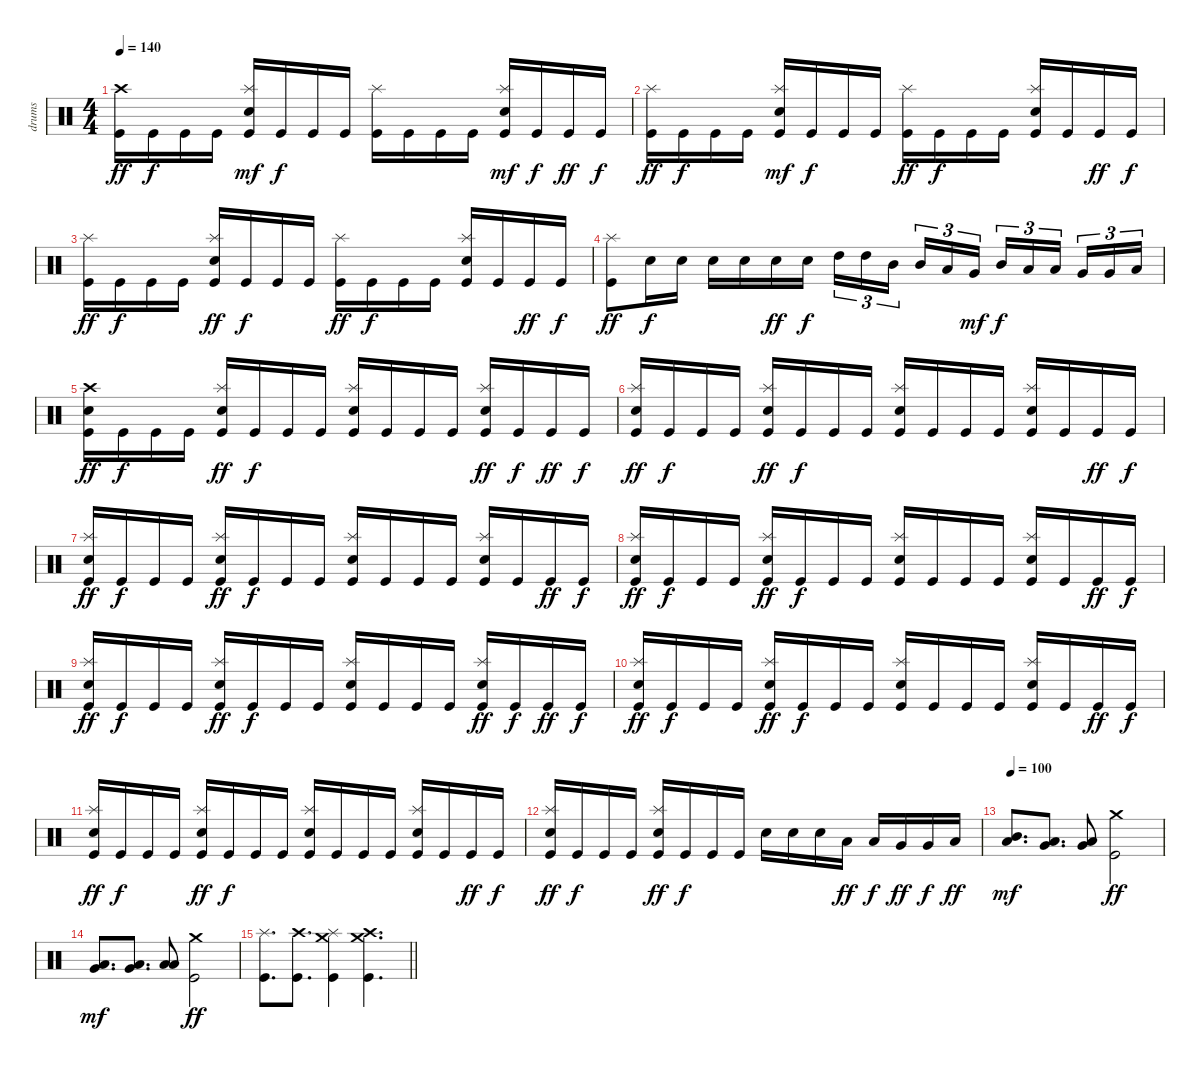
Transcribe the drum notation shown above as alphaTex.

\track ("drums" "drums") {instrument percussion}
\staff {score}
\articulation defaults
\ts (4 4)
\tempo 140
\clef neutral
\ks c
("Crash high (hit)" "Kick (hit)").16{dy ff} "Kick (hit)".16{dy f} "Kick (hit)".16 "Kick (hit)".16 ("Splash (hit)" "Electric Snare (hit)" "Kick (hit)").16{dy mf} "Kick (hit)".16{dy f} "Kick (hit)".16 "Kick (hit)".16 ("Splash (hit)" "Kick (hit)").16 "Kick (hit)".16 "Kick (hit)".16 "Kick (hit)".16 ("Splash (hit)" "Electric Snare (hit)" "Kick (hit)").16{dy mf} "Kick (hit)".16{dy f} "Kick (hit)".16{dy ff} "Kick (hit)".16{dy f} |
("Splash (hit)" "Kick (hit)").16{dy ff} "Kick (hit)".16{dy f} "Kick (hit)".16 "Kick (hit)".16 ("Splash (hit)" "Electric Snare (hit)" "Kick (hit)").16{dy mf} "Kick (hit)".16{dy f} "Kick (hit)".16 "Kick (hit)".16 ("Splash (hit)" "Kick (hit)").16{dy ff} "Kick (hit)".16{dy f} "Kick (hit)".16 "Kick (hit)".16 ("Splash (hit)" "Electric Snare (hit)" "Kick (hit)").16 "Kick (hit)".16 "Kick (hit)".16{dy ff} "Kick (hit)".16{dy f} |
("Splash (hit)" "Kick (hit)").16{dy ff} "Kick (hit)".16{dy f} "Kick (hit)".16 "Kick (hit)".16 ("Splash (hit)" "Electric Snare (hit)" "Kick (hit)").16{dy ff} "Kick (hit)".16{dy f} "Kick (hit)".16 "Kick (hit)".16 ("Splash (hit)" "Kick (hit)").16{dy ff} "Kick (hit)".16{dy f} "Kick (hit)".16 "Kick (hit)".16 ("Splash (hit)" "Electric Snare (hit)" "Kick (hit)").16 "Kick (hit)".16 "Kick (hit)".16{dy ff} "Kick (hit)".16{dy f} |
("Splash (hit)" "Kick (hit)").8{dy ff} "Electric Snare (hit)".16{dy f} "Electric Snare (hit)".16 "Electric Snare (hit)".16 "Electric Snare (hit)".16 "Electric Snare (hit)".16{dy ff} "Electric Snare (hit)".16{dy f} "High Tom (hit)".16{tu (3 2)} "High Tom (hit)".16{tu (3 2)} "Mid Tom (hit)".16{tu (3 2) beam splitsecondary} "Mid Tom (hit)".16{tu (3 2)} "Low Tom (hit)".16{tu (3 2)} "Very Low Tom (hit)".16{tu (3 2) dy mf} "Mid Tom (hit)".16{tu (3 2) dy f} "Low Tom (hit)".16{tu (3 2)} "Low Tom (hit)".16{tu (3 2) beam splitsecondary} "Very Low Tom (hit)".16{tu (3 2)} "Very Low Tom (hit)".16{tu (3 2)} "Low Floor Tom (hit)".16{tu (3 2)} |
("Crash high (hit)" "Electric Snare (hit)" "Kick (hit)").16{dy ff} "Kick (hit)".16{dy f} "Kick (hit)".16 "Kick (hit)".16 ("Splash (hit)" "Electric Snare (hit)" "Kick (hit)").16{dy ff} "Kick (hit)".16{dy f} "Kick (hit)".16 "Kick (hit)".16 ("Splash (hit)" "Electric Snare (hit)" "Kick (hit)").16 "Kick (hit)".16 "Kick (hit)".16 "Kick (hit)".16 ("Splash (hit)" "Electric Snare (hit)" "Kick (hit)").16{dy ff} "Kick (hit)".16{dy f} "Kick (hit)".16{dy ff} "Kick (hit)".16{dy f} |
("Splash (hit)" "Electric Snare (hit)" "Kick (hit)").16{dy ff} "Kick (hit)".16{dy f} "Kick (hit)".16 "Kick (hit)".16 ("Splash (hit)" "Electric Snare (hit)" "Kick (hit)").16{dy ff} "Kick (hit)".16{dy f} "Kick (hit)".16 "Kick (hit)".16 ("Splash (hit)" "Electric Snare (hit)" "Kick (hit)").16 "Kick (hit)".16 "Kick (hit)".16 "Kick (hit)".16 ("Splash (hit)" "Electric Snare (hit)" "Kick (hit)").16 "Kick (hit)".16 "Kick (hit)".16{dy ff} "Kick (hit)".16{dy f} |
("Splash (hit)" "Electric Snare (hit)" "Kick (hit)").16{dy ff} "Kick (hit)".16{dy f} "Kick (hit)".16 "Kick (hit)".16 ("Splash (hit)" "Electric Snare (hit)" "Kick (hit)").16{dy ff} "Kick (hit)".16{dy f} "Kick (hit)".16 "Kick (hit)".16 ("Splash (hit)" "Electric Snare (hit)" "Kick (hit)").16 "Kick (hit)".16 "Kick (hit)".16 "Kick (hit)".16 ("Splash (hit)" "Electric Snare (hit)" "Kick (hit)").16 "Kick (hit)".16 "Kick (hit)".16{dy ff} "Kick (hit)".16{dy f} |
("Splash (hit)" "Electric Snare (hit)" "Kick (hit)").16{dy ff} "Kick (hit)".16{dy f} "Kick (hit)".16 "Kick (hit)".16 ("Splash (hit)" "Electric Snare (hit)" "Kick (hit)").16{dy ff} "Kick (hit)".16{dy f} "Kick (hit)".16 "Kick (hit)".16 ("Splash (hit)" "Electric Snare (hit)" "Kick (hit)").16 "Kick (hit)".16 "Kick (hit)".16 "Kick (hit)".16 ("Splash (hit)" "Electric Snare (hit)" "Kick (hit)").16 "Kick (hit)".16 "Kick (hit)".16{dy ff} "Kick (hit)".16{dy f} |
("Splash (hit)" "Electric Snare (hit)" "Kick (hit)").16{dy ff} "Kick (hit)".16{dy f} "Kick (hit)".16 "Kick (hit)".16 ("Splash (hit)" "Electric Snare (hit)" "Kick (hit)").16{dy ff} "Kick (hit)".16{dy f} "Kick (hit)".16 "Kick (hit)".16 ("Splash (hit)" "Electric Snare (hit)" "Kick (hit)").16 "Kick (hit)".16 "Kick (hit)".16 "Kick (hit)".16 ("Splash (hit)" "Electric Snare (hit)" "Kick (hit)").16{dy ff} "Kick (hit)".16{dy f} "Kick (hit)".16{dy ff} "Kick (hit)".16{dy f} |
("Splash (hit)" "Electric Snare (hit)" "Kick (hit)").16{dy ff} "Kick (hit)".16{dy f} "Kick (hit)".16 "Kick (hit)".16 ("Splash (hit)" "Electric Snare (hit)" "Kick (hit)").16{dy ff} "Kick (hit)".16{dy f} "Kick (hit)".16 "Kick (hit)".16 ("Splash (hit)" "Electric Snare (hit)" "Kick (hit)").16 "Kick (hit)".16 "Kick (hit)".16 "Kick (hit)".16 ("Splash (hit)" "Electric Snare (hit)" "Kick (hit)").16 "Kick (hit)".16 "Kick (hit)".16{dy ff} "Kick (hit)".16{dy f} |
("Splash (hit)" "Electric Snare (hit)" "Kick (hit)").16{dy ff} "Kick (hit)".16{dy f} "Kick (hit)".16 "Kick (hit)".16 ("Splash (hit)" "Electric Snare (hit)" "Kick (hit)").16{dy ff} "Kick (hit)".16{dy f} "Kick (hit)".16 "Kick (hit)".16 ("Splash (hit)" "Electric Snare (hit)" "Kick (hit)").16 "Kick (hit)".16 "Kick (hit)".16 "Kick (hit)".16 ("Splash (hit)" "Electric Snare (hit)" "Kick (hit)").16 "Kick (hit)".16 "Kick (hit)".16{dy ff} "Kick (hit)".16{dy f} |
("Splash (hit)" "Electric Snare (hit)" "Kick (hit)").16{dy ff} "Kick (hit)".16{dy f} "Kick (hit)".16 "Kick (hit)".16 ("Splash (hit)" "Electric Snare (hit)" "Kick (hit)").16{dy ff} "Kick (hit)".16{dy f} "Kick (hit)".16 "Kick (hit)".16 "Electric Snare (hit)".16 "Electric Snare (hit)".16 "Electric Snare (hit)".16 "Low Tom (hit)".16{dy ff} "Low Tom (hit)".16{dy f} "Very Low Tom (hit)".16{dy ff} "Very Low Tom (hit)".16{dy f} "Low Floor Tom (hit)".16{dy ff} |
\tempo 100
("Mid Tom (hit)" "Low Tom (hit)").8{d dy mf} ("Low Tom (hit)" "Very Low Tom (hit)").8{d} ("Very Low Tom (hit)" "Low Floor Tom (hit)").8 ("Crash medium (hit)" "Kick (hit)").2{dy ff} |
("Low Tom (hit)" "Very Low Tom (hit)").8{d dy mf} ("Very Low Tom (hit)" "Low Floor Tom (hit)").8{d} ("Low Floor Tom (hit)" "Low Floor Tom (hit)").8 ("Crash medium (hit)" "Kick (hit)").2{dy ff} |
\barLineRight lightlight
("Splash (hit)" "Kick (hit)").8{d} ("Crash high (hit)" "Kick (hit)").8{d} ("Crash medium (hit)" "Splash (hit)" "Kick (hit)").4 ("Crash high (hit)" "Crash medium (hit)" "Kick (hit)").4{d}
